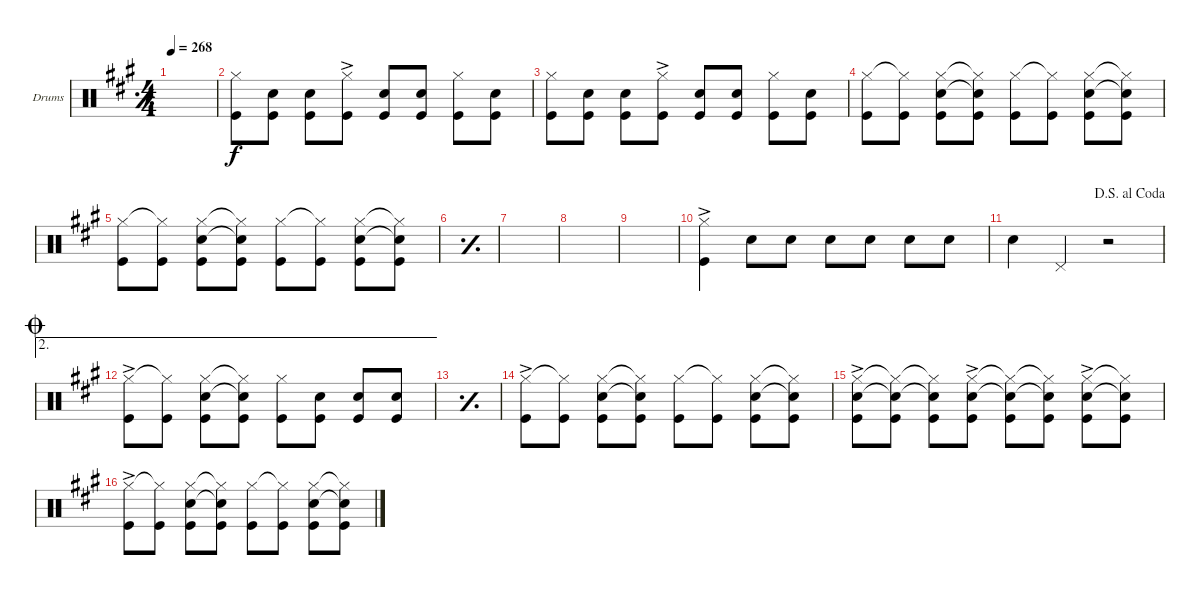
\defaultSystemsLayout 4
\bracketExtendMode groupsimilarinstruments
\firstSystemTrackNameOrientation horizontal
\otherSystemsTrackNameOrientation horizontal
\track ("Stefan Kaufmann" "Drums") {instrument percussion}
\staff {score}
\articulation defaults
\ts (4 4)
\tempo 268
\clef neutral
\simile simple
\ks a
|
("Hi-Hat (closed)" "Kick (hit)").8 ("Snare (hit) 2" "Kick (hit)").8 ("Snare (hit) 2" "Kick (hit)").8 ("Hi-Hat (closed)"{ac} "Kick (hit)").8 ("Snare (hit) 2" "Kick (hit)").8 ("Snare (hit) 2" "Kick (hit)").8 ("Hi-Hat (closed)" "Kick (hit)").8 ("Snare (hit) 2" "Kick (hit)").8 |
("Kick (hit)" "Hi-Hat (closed)").8 ("Kick (hit)" "Snare (hit) 2").8 ("Kick (hit)" "Snare (hit) 2").8 ("Kick (hit)" "Hi-Hat (closed)"{ac}).8 ("Kick (hit)" "Snare (hit) 2").8 ("Kick (hit)" "Snare (hit) 2").8 ("Kick (hit)" "Hi-Hat (closed)").8 ("Kick (hit)" "Snare (hit) 2").8 |
("Kick (hit)" "Hi-Hat (closed)").8 ("Kick (hit)" "Hi-Hat (closed)"{t}).8 ("Kick (hit)" "Hi-Hat (closed)" "Snare (hit) 2").8 ("Kick (hit)" "Hi-Hat (closed)"{t} "Snare (hit) 2"{t}).8 ("Kick (hit)" "Hi-Hat (closed)").8 ("Kick (hit)" "Hi-Hat (closed)"{t}).8 ("Kick (hit)" "Hi-Hat (closed)" "Snare (hit) 2").8 ("Kick (hit)" "Hi-Hat (closed)"{t} "Snare (hit) 2"{t}).8 |
("Kick (hit)" "Hi-Hat (closed)").8 ("Kick (hit)" "Hi-Hat (closed)"{t}).8 ("Kick (hit)" "Hi-Hat (closed)" "Snare (hit) 2").8 ("Kick (hit)" "Hi-Hat (closed)"{t} "Snare (hit) 2"{t}).8 ("Kick (hit)" "Hi-Hat (closed)").8 ("Kick (hit)" "Hi-Hat (closed)"{t}).8 ("Kick (hit)" "Hi-Hat (closed)" "Snare (hit) 2").8 ("Kick (hit)" "Hi-Hat (closed)"{t} "Snare (hit) 2"{t}).8 |
\simile simple
|
|
|
|
\simile none
("Hi-Hat (closed)" "Kick (hit)"{ac}).4 "Snare (hit) 2".8 "Snare (hit) 2".8 "Snare (hit) 2".8 "Snare (hit) 2".8 "Snare (hit) 2".8 "Snare (hit) 2".8 |
\jump dalsegnoalcoda "Snare (hit) 2".4 "Pedal Hi-Hat (hit)".4
r.2 |
\ae 2
\jump coda
("Kick (hit)" "Hi-Hat (closed)"{ac}).8 ("Kick (hit)" "Hi-Hat (closed)"{t}).8 ("Kick (hit)" "Hi-Hat (closed)" "Snare (hit) 2").8 ("Kick (hit)" "Hi-Hat (closed)"{t} "Snare (hit) 2"{t}).8 ("Kick (hit)" "Hi-Hat (closed)").8 ("Kick (hit)" "Snare (hit) 2").8 ("Kick (hit)" "Snare (hit) 2").8 ("Kick (hit)" "Snare (hit) 2").8 |
\simile simple
|
\simile none
("Kick (hit)" "Hi-Hat (closed)"{ac}).8 ("Kick (hit)" "Hi-Hat (closed)"{t}).8 ("Kick (hit)" "Snare (hit) 2" "Hi-Hat (closed)").8 ("Kick (hit)" "Snare (hit) 2"{t} "Hi-Hat (closed)"{t}).8 ("Kick (hit)" "Hi-Hat (closed)").8 ("Kick (hit)" "Hi-Hat (closed)"{t}).8 ("Kick (hit)" "Snare (hit) 2" "Hi-Hat (closed)").8 ("Kick (hit)" "Snare (hit) 2"{t} "Hi-Hat (closed)"{t}).8 |
("Kick (hit)" "Snare (hit) 2" "Hi-Hat (closed)"{ac}).8 ("Kick (hit)" "Snare (hit) 2"{t} "Hi-Hat (closed)"{t}).8 ("Kick (hit)" "Snare (hit) 2"{t} "Hi-Hat (closed)"{t}).8 ("Kick (hit)" "Hi-Hat (closed)" "Snare (hit) 2"{ac}).8 ("Kick (hit)" "Hi-Hat (closed)"{t} "Snare (hit) 2"{t}).8 ("Kick (hit)" "Hi-Hat (closed)"{t} "Snare (hit) 2"{t}).8 ("Kick (hit)" "Snare (hit) 2" "Hi-Hat (closed)"{ac}).8 ("Kick (hit)" "Snare (hit) 2"{t} "Hi-Hat (closed)"{t}).8 |
("Kick (hit)" "Hi-Hat (closed)"{ac}).8 ("Kick (hit)" "Hi-Hat (closed)"{t}).8 ("Kick (hit)" "Hi-Hat (closed)" "Snare (hit) 2").8 ("Kick (hit)" "Hi-Hat (closed)"{t} "Snare (hit) 2"{t}).8 ("Kick (hit)" "Hi-Hat (closed)").8 ("Kick (hit)" "Hi-Hat (closed)"{t}).8 ("Kick (hit)" "Hi-Hat (closed)" "Snare (hit) 2").8 ("Kick (hit)" "Hi-Hat (closed)"{t} "Snare (hit) 2"{t}).8
